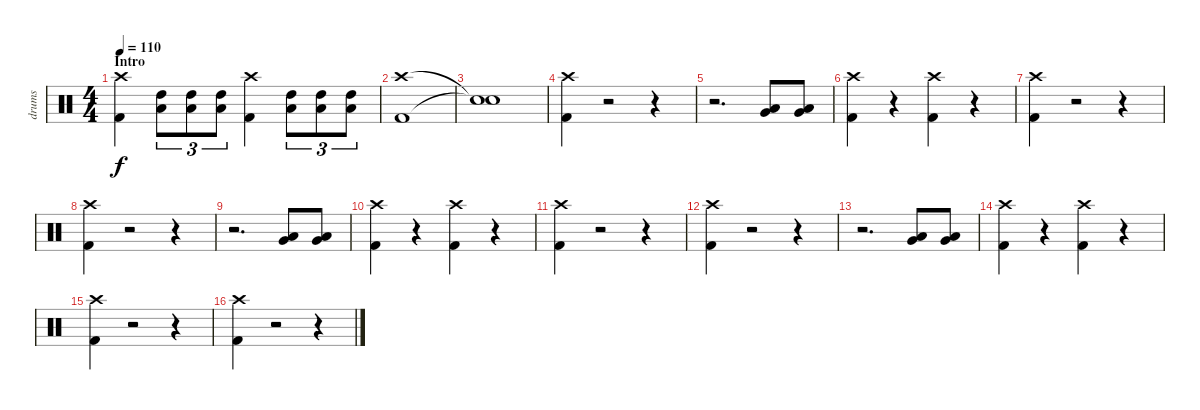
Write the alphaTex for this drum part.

\track ("drums" "drums") {instrument percussion}
\staff {score}
\articulation defaults
\ts (4 4)
\section ("" "Intro")
\tempo 110
\clef neutral
\ks c
("Crash high (hit)" "Kick (hit) 2").4{dy f} ("High Tom (hit)" "Low Floor Tom (hit)").8{tu (3 2)} ("High Tom (hit)" "Low Floor Tom (hit)").8{tu (3 2)} ("High Tom (hit)" "Low Floor Tom (hit)").8{tu (3 2)} ("Crash high (hit)" "Kick (hit) 2").4 ("High Tom (hit)" "Low Floor Tom (hit)").8{tu (3 2)} ("High Tom (hit)" "Low Floor Tom (hit)").8{tu (3 2)} ("High Tom (hit)" "Low Floor Tom (hit)").8{tu (3 2)} |
("Crash high (hit)" "Kick (hit) 2").1 |
("Snare (hit)"{t} "Snare (hit)"{t}).1 |
("Crash high (hit)" "Kick (hit) 2").4 r.2 r.4 |
r.2{d} ("Very Low Tom (hit)" "Low Floor Tom (hit)").8 ("Very Low Tom (hit)" "Low Floor Tom (hit)").8 |
("Crash high (hit)" "Kick (hit) 2").4 r.4 ("Crash high (hit)" "Kick (hit) 2").4 r.4 |
("Crash high (hit)" "Kick (hit) 2").4 r.2 r.4 |
("Crash high (hit)" "Kick (hit) 2").4 r.2 r.4 |
r.2{d} ("Very Low Tom (hit)" "Low Floor Tom (hit)").8 ("Very Low Tom (hit)" "Low Floor Tom (hit)").8 |
("Crash high (hit)" "Kick (hit) 2").4 r.4 ("Crash high (hit)" "Kick (hit) 2").4 r.4 |
("Crash high (hit)" "Kick (hit) 2").4 r.2 r.4 |
("Crash high (hit)" "Kick (hit) 2").4 r.2 r.4 |
r.2{d} ("Very Low Tom (hit)" "Low Floor Tom (hit)").8 ("Very Low Tom (hit)" "Low Floor Tom (hit)").8 |
("Crash high (hit)" "Kick (hit) 2").4 r.4 ("Crash high (hit)" "Kick (hit) 2").4 r.4 |
("Crash high (hit)" "Kick (hit) 2").4 r.2 r.4 |
("Crash high (hit)" "Kick (hit) 2").4 r.2 r.4
